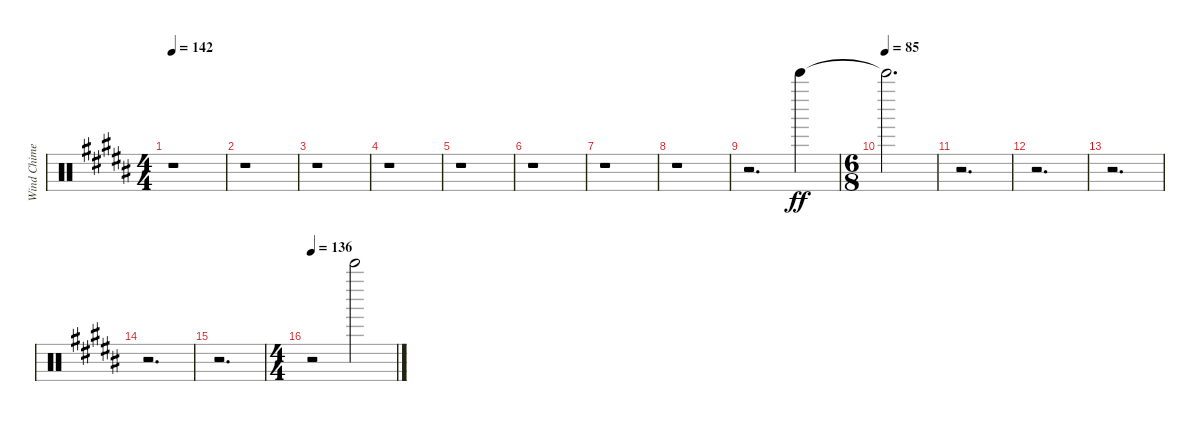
\track ("Wind Chimes" "Wind Chime") {instrument percussion}
\staff {score}
\articulation defaults
\ts (4 4)
\tempo 142
\clef neutral
\ks b
r.1{dy ff} |
r.1 |
r.1 |
r.1 |
r.1 |
r.1 |
r.1 |
r.1 |
r.2{d} "Bell Tree (hit)".4 |
\ts (6 8)
\tempo (85)
"Bell Tree (hit)"{t}.2{d} |
r.2{d} |
r.2{d} |
r.2{d} |
r.2{d} |
r.2{d} |
\ts (4 4)
\tempo 136
r.2 "Bell Tree (hit)".2
